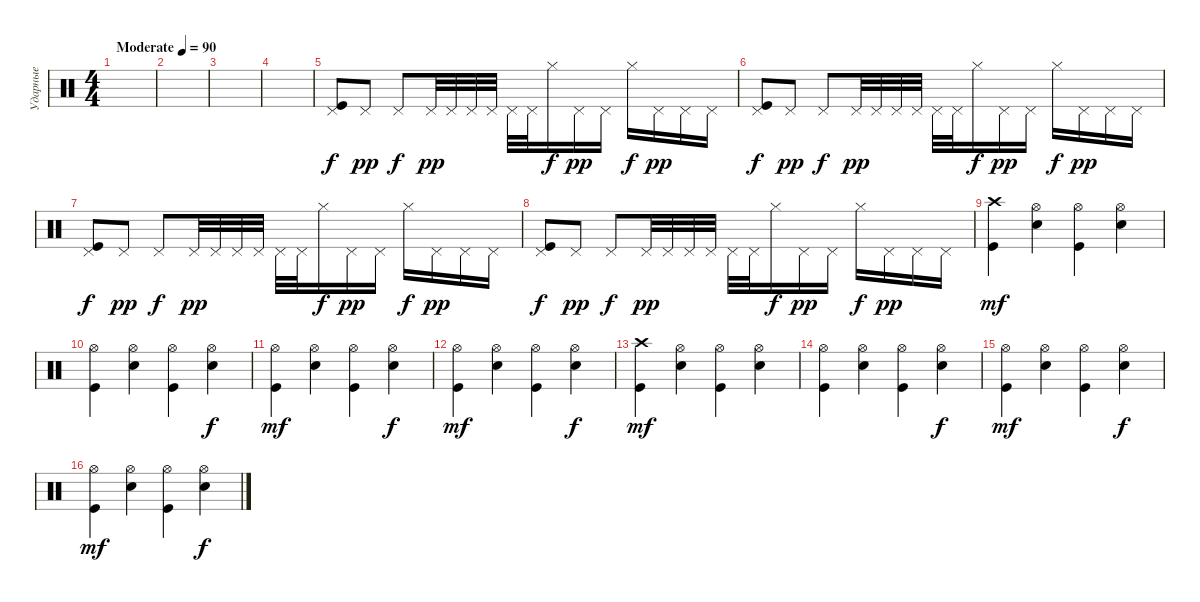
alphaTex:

\track ("Ударные" "Ударные") {instrument percussion}
\staff {score}
\articulation defaults
\ts (4 4)
\tempo (90 "Moderate")
\clef neutral
\ks c
|
|
|
|
("Pedal Hi-Hat (hit)" "Kick (hit)").8 "Pedal Hi-Hat (hit)".8{dy pp} "Pedal Hi-Hat (hit)".8{dy f} "Pedal Hi-Hat (hit)".32{dy pp} "Pedal Hi-Hat (hit)".32 "Pedal Hi-Hat (hit)".32 "Pedal Hi-Hat (hit)".32 "Pedal Hi-Hat (hit)".32 "Pedal Hi-Hat (hit)".32 "Hi-Hat (closed)".16{dy f} "Pedal Hi-Hat (hit)".16{dy pp} "Pedal Hi-Hat (hit)".16 "Hi-Hat (closed)".16{dy f} "Pedal Hi-Hat (hit)".16{dy pp} "Pedal Hi-Hat (hit)".16 "Pedal Hi-Hat (hit)".16 |
("Pedal Hi-Hat (hit)" "Kick (hit)").8{dy f} "Pedal Hi-Hat (hit)".8{dy pp} "Pedal Hi-Hat (hit)".8{dy f} "Pedal Hi-Hat (hit)".32{dy pp} "Pedal Hi-Hat (hit)".32 "Pedal Hi-Hat (hit)".32 "Pedal Hi-Hat (hit)".32 "Pedal Hi-Hat (hit)".32 "Pedal Hi-Hat (hit)".32 "Hi-Hat (closed)".16{dy f} "Pedal Hi-Hat (hit)".16{dy pp} "Pedal Hi-Hat (hit)".16 "Hi-Hat (closed)".16{dy f} "Pedal Hi-Hat (hit)".16{dy pp} "Pedal Hi-Hat (hit)".16 "Pedal Hi-Hat (hit)".16 |
("Pedal Hi-Hat (hit)" "Kick (hit)").8{dy f} "Pedal Hi-Hat (hit)".8{dy pp} "Pedal Hi-Hat (hit)".8{dy f} "Pedal Hi-Hat (hit)".32{dy pp} "Pedal Hi-Hat (hit)".32 "Pedal Hi-Hat (hit)".32 "Pedal Hi-Hat (hit)".32 "Pedal Hi-Hat (hit)".32 "Pedal Hi-Hat (hit)".32 "Hi-Hat (closed)".16{dy f} "Pedal Hi-Hat (hit)".16{dy pp} "Pedal Hi-Hat (hit)".16 "Hi-Hat (closed)".16{dy f} "Pedal Hi-Hat (hit)".16{dy pp} "Pedal Hi-Hat (hit)".16 "Pedal Hi-Hat (hit)".16 |
("Pedal Hi-Hat (hit)" "Kick (hit)").8{dy f} "Pedal Hi-Hat (hit)".8{dy pp} "Pedal Hi-Hat (hit)".8{dy f} "Pedal Hi-Hat (hit)".32{dy pp} "Pedal Hi-Hat (hit)".32 "Pedal Hi-Hat (hit)".32 "Pedal Hi-Hat (hit)".32 "Pedal Hi-Hat (hit)".32 "Pedal Hi-Hat (hit)".32 "Hi-Hat (closed)".16{dy f} "Pedal Hi-Hat (hit)".16{dy pp} "Pedal Hi-Hat (hit)".16 "Hi-Hat (closed)".16{dy f} "Pedal Hi-Hat (hit)".16{dy pp} "Pedal Hi-Hat (hit)".16 "Pedal Hi-Hat (hit)".16 |
("Crash high (hit)" "Kick (hit)").4{dy mf} ("Hi-Hat (open)" "Electric Snare (hit)").4 ("Hi-Hat (open)" "Kick (hit)").4 ("Hi-Hat (open)" "Electric Snare (hit)").4 |
("Hi-Hat (open)" "Kick (hit)").4 ("Hi-Hat (open)" "Electric Snare (hit)").4 ("Hi-Hat (open)" "Kick (hit)").4 ("Hi-Hat (open)" "Electric Snare (hit)").4{dy f} |
("Hi-Hat (open)" "Kick (hit)").4{dy mf} ("Hi-Hat (open)" "Electric Snare (hit)").4 ("Hi-Hat (open)" "Kick (hit)").4 ("Hi-Hat (open)" "Electric Snare (hit)").4{dy f} |
("Hi-Hat (open)" "Kick (hit)").4{dy mf} ("Hi-Hat (open)" "Electric Snare (hit)").4 ("Hi-Hat (open)" "Kick (hit)").4 ("Hi-Hat (open)" "Electric Snare (hit)").4{dy f} |
("Crash high (hit)" "Kick (hit)").4{dy mf} ("Hi-Hat (open)" "Electric Snare (hit)").4 ("Hi-Hat (open)" "Kick (hit)").4 ("Hi-Hat (open)" "Electric Snare (hit)").4 |
("Hi-Hat (open)" "Kick (hit)").4 ("Hi-Hat (open)" "Electric Snare (hit)").4 ("Hi-Hat (open)" "Kick (hit)").4 ("Hi-Hat (open)" "Electric Snare (hit)").4{dy f} |
("Hi-Hat (open)" "Kick (hit)").4{dy mf} ("Hi-Hat (open)" "Electric Snare (hit)").4 ("Hi-Hat (open)" "Kick (hit)").4 ("Hi-Hat (open)" "Electric Snare (hit)").4{dy f} |
("Hi-Hat (open)" "Kick (hit)").4{dy mf} ("Hi-Hat (open)" "Electric Snare (hit)").4 ("Hi-Hat (open)" "Kick (hit)").4 ("Hi-Hat (open)" "Electric Snare (hit)").4{dy f}
